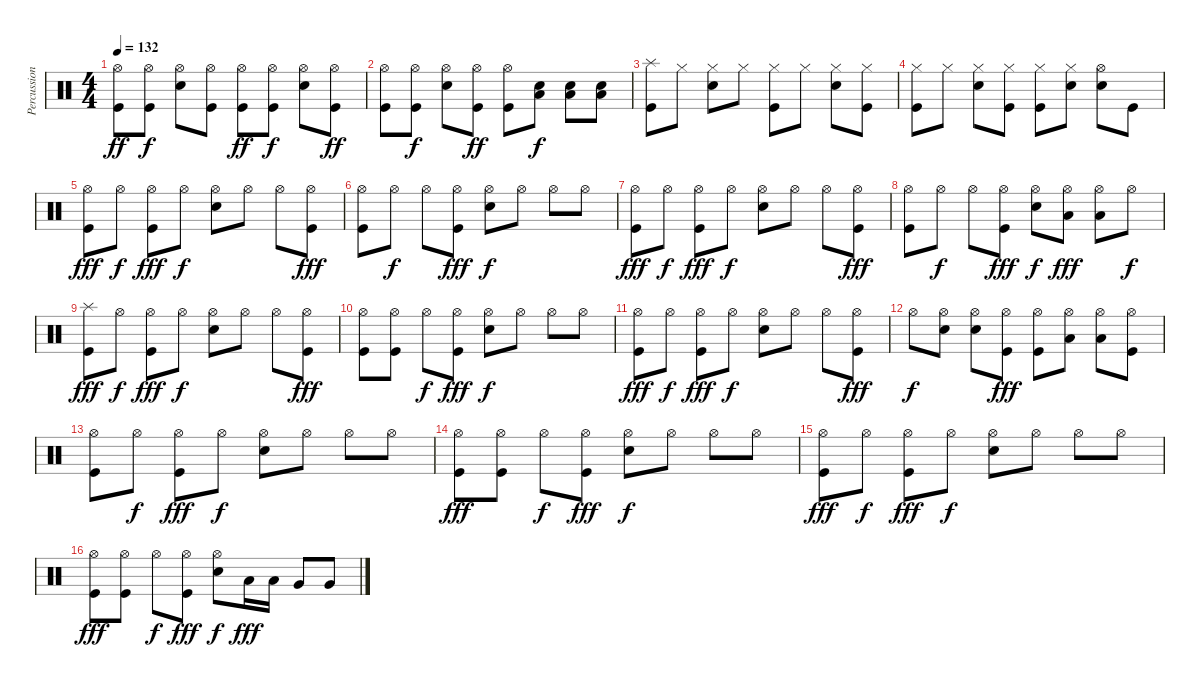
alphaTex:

\track ("Percussion" "Percussion") {instrument percussion}
\staff {score}
\articulation defaults
\ts (4 4)
\tempo 132
\clef neutral
\ks c
("Hi-Hat (open)" "Kick (hit)").8{dy ff} ("Hi-Hat (open)" "Kick (hit)").8{dy f} ("Hi-Hat (open)" "Snare (hit) 2").8 ("Hi-Hat (open)" "Kick (hit)").8 ("Hi-Hat (open)" "Kick (hit)").8{dy ff} ("Hi-Hat (open)" "Kick (hit)").8{dy f} ("Hi-Hat (open)" "Snare (hit) 2").8 ("Hi-Hat (open)" "Kick (hit)").8{dy ff} |
("Hi-Hat (open)" "Kick (hit)").8 ("Hi-Hat (open)" "Kick (hit)").8{dy f} ("Hi-Hat (open)" "Snare (hit) 2").8 ("Hi-Hat (open)" "Kick (hit)").8{dy ff} ("Hi-Hat (open)" "Kick (hit)").8 ("Low Tom (hit)" "Snare (hit) 2").8{dy f} ("Low Tom (hit)" "Snare (hit) 2").8 ("Low Tom (hit)" "Snare (hit) 2").8 |
("Splash (hit)" "Kick (hit)").8 "Hi-Hat (closed)".8 ("Hi-Hat (closed)" "Snare (hit) 2").8 "Hi-Hat (closed)".8 ("Hi-Hat (closed)" "Kick (hit)").8 "Hi-Hat (closed)".8 ("Hi-Hat (closed)" "Snare (hit) 2").8 ("Hi-Hat (closed)" "Kick (hit)").8 |
("Hi-Hat (closed)" "Kick (hit)").8 "Hi-Hat (closed)".8 ("Hi-Hat (closed)" "Snare (hit) 2").8 ("Hi-Hat (closed)" "Kick (hit)").8 ("Hi-Hat (closed)" "Kick (hit)").8 ("Hi-Hat (closed)" "Snare (hit) 2").8 ("Hi-Hat (open)" "Snare (hit) 2").8 "Kick (hit)".8 |
("Hi-Hat (open)" "Kick (hit)").8{dy fff} "Hi-Hat (open)".8{dy f} ("Hi-Hat (open)" "Kick (hit)").8{dy fff} "Hi-Hat (open)".8{dy f} ("Hi-Hat (open)" "Snare (hit) 2").8 "Hi-Hat (open)".8 "Hi-Hat (open)".8 ("Hi-Hat (open)" "Kick (hit)").8{dy fff} |
("Hi-Hat (open)" "Kick (hit)").8 "Hi-Hat (open)".8{dy f} "Hi-Hat (open)".8 ("Hi-Hat (open)" "Kick (hit)").8{dy fff} ("Hi-Hat (open)" "Snare (hit) 2").8{dy f} "Hi-Hat (open)".8 "Hi-Hat (open)".8 "Hi-Hat (open)".8 |
("Hi-Hat (open)" "Kick (hit)").8{dy fff} "Hi-Hat (open)".8{dy f} ("Hi-Hat (open)" "Kick (hit)").8{dy fff} "Hi-Hat (open)".8{dy f} ("Hi-Hat (open)" "Snare (hit) 2").8 "Hi-Hat (open)".8 "Hi-Hat (open)".8 ("Hi-Hat (open)" "Kick (hit)").8{dy fff} |
("Hi-Hat (open)" "Kick (hit)").8 "Hi-Hat (open)".8{dy f} "Hi-Hat (open)".8 ("Hi-Hat (open)" "Kick (hit)").8{dy fff} ("Hi-Hat (open)" "Snare (hit) 2").8{dy f} ("Hi-Hat (open)" "Low Tom (hit)").8{dy fff} ("Hi-Hat (open)" "Low Tom (hit)").8 "Hi-Hat (open)".8{dy f} |
("Splash (hit)" "Kick (hit)").8{dy fff} "Hi-Hat (open)".8{dy f} ("Hi-Hat (open)" "Kick (hit)").8{dy fff} "Hi-Hat (open)".8{dy f} ("Hi-Hat (open)" "Snare (hit) 2").8 "Hi-Hat (open)".8 "Hi-Hat (open)".8 ("Hi-Hat (open)" "Kick (hit)").8{dy fff} |
("Hi-Hat (open)" "Kick (hit)").8 ("Hi-Hat (open)" "Kick (hit)").8 "Hi-Hat (open)".8{dy f} ("Hi-Hat (open)" "Kick (hit)").8{dy fff} ("Hi-Hat (open)" "Snare (hit) 2").8{dy f} "Hi-Hat (open)".8 "Hi-Hat (open)".8 "Hi-Hat (open)".8 |
("Hi-Hat (open)" "Kick (hit)").8{dy fff} "Hi-Hat (open)".8{dy f} ("Hi-Hat (open)" "Kick (hit)").8{dy fff} "Hi-Hat (open)".8{dy f} ("Hi-Hat (open)" "Snare (hit) 2").8 "Hi-Hat (open)".8 "Hi-Hat (open)".8 ("Hi-Hat (open)" "Kick (hit)").8{dy fff} |
"Hi-Hat (open)".8{dy f} ("Hi-Hat (open)" "Snare (hit) 2").8 ("Hi-Hat (open)" "Snare (hit) 2").8 ("Hi-Hat (open)" "Kick (hit)").8{dy fff} ("Hi-Hat (open)" "Kick (hit)").8 ("Hi-Hat (open)" "Low Tom (hit)").8 ("Hi-Hat (open)" "Low Tom (hit)").8 ("Hi-Hat (open)" "Kick (hit)").8 |
("Hi-Hat (open)" "Kick (hit)").8 "Hi-Hat (open)".8{dy f} ("Hi-Hat (open)" "Kick (hit)").8{dy fff} "Hi-Hat (open)".8{dy f} ("Hi-Hat (open)" "Snare (hit) 2").8 "Hi-Hat (open)".8 "Hi-Hat (open)".8 "Hi-Hat (open)".8 |
("Hi-Hat (open)" "Kick (hit)").8{dy fff} ("Hi-Hat (open)" "Kick (hit)").8 "Hi-Hat (open)".8{dy f} ("Hi-Hat (open)" "Kick (hit)").8{dy fff} ("Hi-Hat (open)" "Snare (hit) 2").8{dy f} "Hi-Hat (open)".8 "Hi-Hat (open)".8 "Hi-Hat (open)".8 |
("Hi-Hat (open)" "Kick (hit)").8{dy fff} "Hi-Hat (open)".8{dy f} ("Hi-Hat (open)" "Kick (hit)").8{dy fff} "Hi-Hat (open)".8{dy f} ("Hi-Hat (open)" "Snare (hit) 2").8 "Hi-Hat (open)".8 "Hi-Hat (open)".8 "Hi-Hat (open)".8 |
("Hi-Hat (open)" "Kick (hit)").8{dy fff} ("Hi-Hat (open)" "Kick (hit)").8 "Hi-Hat (open)".8{dy f} ("Hi-Hat (open)" "Kick (hit)").8{dy fff} ("Hi-Hat (open)" "Snare (hit) 2").8{dy f} "Low Tom (hit)".16{dy fff} "Low Tom (hit)".16 "Very Low Tom (hit)".8 "Very Low Tom (hit)".8
